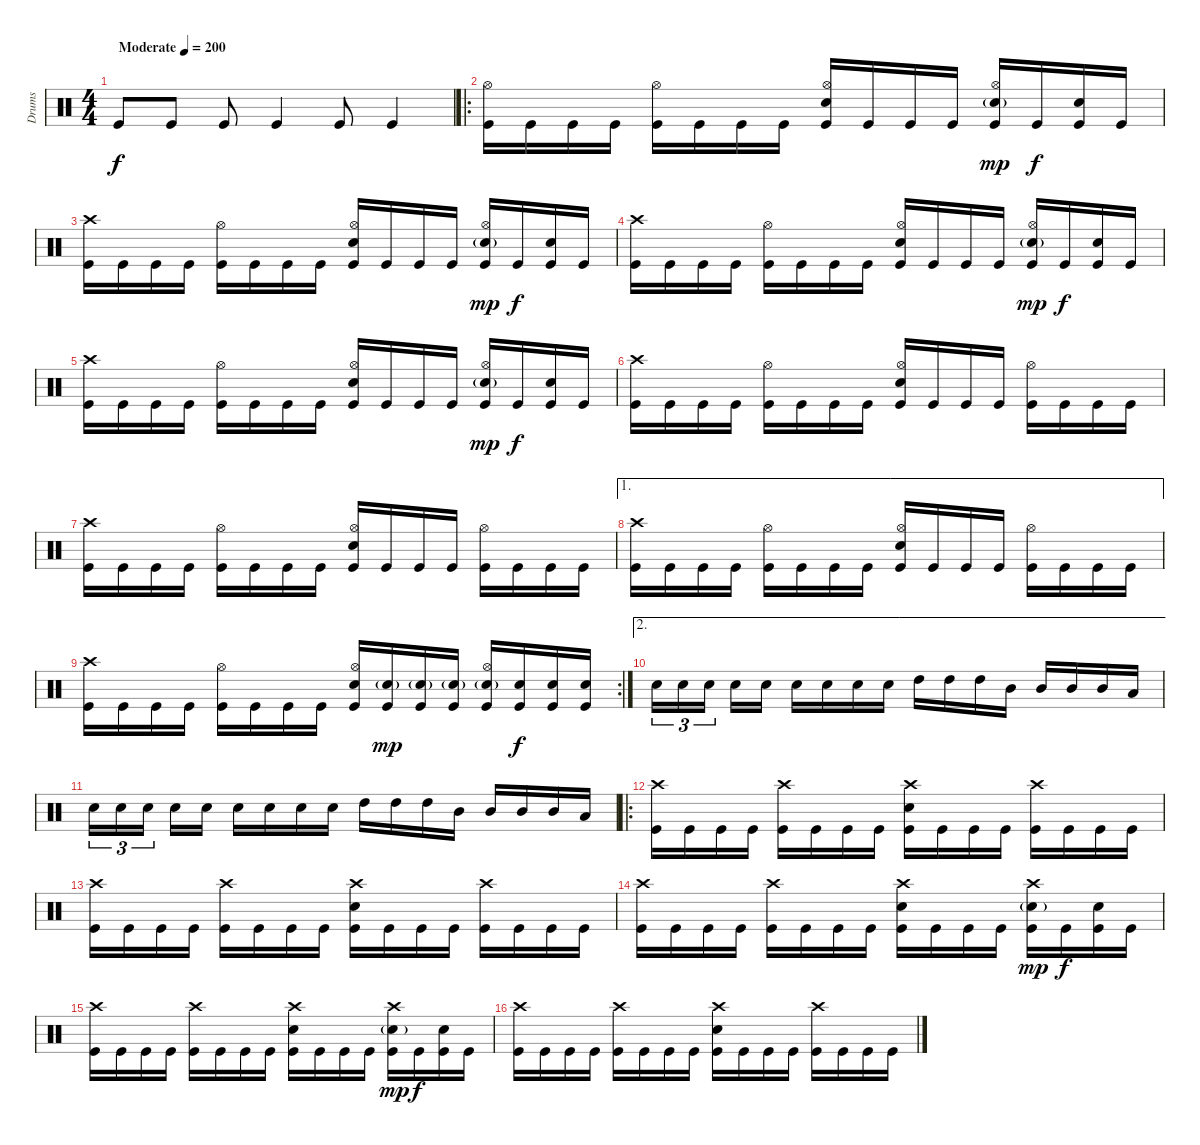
\track ("Drums" "Drums") {instrument percussion}
\staff {score}
\articulation defaults
\ts (4 4)
\tempo (200 "Moderate")
\clef neutral
\ks c "Kick (hit)".8{dy f} "Kick (hit)".8 "Kick (hit)".8 "Kick (hit)".4 "Kick (hit)".8 "Kick (hit)".4
|
\ro
("Hi-Hat (open)" "Kick (hit)").16 "Kick (hit)".16 "Kick (hit)".16 "Kick (hit)".16 ("Hi-Hat (open)" "Kick (hit)").16 "Kick (hit)".16 "Kick (hit)".16 "Kick (hit)".16 ("Hi-Hat (open)" "Snare (hit) 2" "Kick (hit)").16 "Kick (hit)".16 "Kick (hit)".16 "Kick (hit)".16 ("Hi-Hat (open)" "Snare (hit) 2"{g} "Kick (hit)").16{dy mp} "Kick (hit)".16{dy f} ("Snare (hit) 2" "Kick (hit)").16 "Kick (hit)".16 |
("Crash high (hit)" "Kick (hit)").16 "Kick (hit)".16 "Kick (hit)".16 "Kick (hit)".16 ("Hi-Hat (open)" "Kick (hit)").16 "Kick (hit)".16 "Kick (hit)".16 "Kick (hit)".16 ("Hi-Hat (open)" "Snare (hit) 2" "Kick (hit)").16 "Kick (hit)".16 "Kick (hit)".16 "Kick (hit)".16 ("Hi-Hat (open)" "Snare (hit) 2"{g} "Kick (hit)").16{dy mp} "Kick (hit)".16{dy f} ("Snare (hit) 2" "Kick (hit)").16 "Kick (hit)".16 |
("Crash high (hit)" "Kick (hit)").16 "Kick (hit)".16 "Kick (hit)".16 "Kick (hit)".16 ("Hi-Hat (open)" "Kick (hit)").16 "Kick (hit)".16 "Kick (hit)".16 "Kick (hit)".16 ("Hi-Hat (open)" "Snare (hit) 2" "Kick (hit)").16 "Kick (hit)".16 "Kick (hit)".16 "Kick (hit)".16 ("Hi-Hat (open)" "Snare (hit) 2"{g} "Kick (hit)").16{dy mp} "Kick (hit)".16{dy f} ("Snare (hit) 2" "Kick (hit)").16 "Kick (hit)".16 |
("Crash high (hit)" "Kick (hit)").16 "Kick (hit)".16 "Kick (hit)".16 "Kick (hit)".16 ("Hi-Hat (open)" "Kick (hit)").16 "Kick (hit)".16 "Kick (hit)".16 "Kick (hit)".16 ("Hi-Hat (open)" "Snare (hit) 2" "Kick (hit)").16 "Kick (hit)".16 "Kick (hit)".16 "Kick (hit)".16 ("Hi-Hat (open)" "Snare (hit) 2"{g} "Kick (hit)").16{dy mp} "Kick (hit)".16{dy f} ("Snare (hit) 2" "Kick (hit)").16 "Kick (hit)".16 |
("Crash high (hit)" "Kick (hit)").16 "Kick (hit)".16 "Kick (hit)".16 "Kick (hit)".16 ("Hi-Hat (open)" "Kick (hit)").16 "Kick (hit)".16 "Kick (hit)".16 "Kick (hit)".16 ("Hi-Hat (open)" "Snare (hit) 2" "Kick (hit)").16 "Kick (hit)".16 "Kick (hit)".16 "Kick (hit)".16 ("Hi-Hat (open)" "Kick (hit)").16 "Kick (hit)".16 "Kick (hit)".16 "Kick (hit)".16 |
("Crash high (hit)" "Kick (hit)").16 "Kick (hit)".16 "Kick (hit)".16 "Kick (hit)".16 ("Hi-Hat (open)" "Kick (hit)").16 "Kick (hit)".16 "Kick (hit)".16 "Kick (hit)".16 ("Hi-Hat (open)" "Snare (hit) 2" "Kick (hit)").16 "Kick (hit)".16 "Kick (hit)".16 "Kick (hit)".16 ("Hi-Hat (open)" "Kick (hit)").16 "Kick (hit)".16 "Kick (hit)".16 "Kick (hit)".16 |
\ae 1
("Crash high (hit)" "Kick (hit)").16 "Kick (hit)".16 "Kick (hit)".16 "Kick (hit)".16 ("Hi-Hat (open)" "Kick (hit)").16 "Kick (hit)".16 "Kick (hit)".16 "Kick (hit)".16 ("Hi-Hat (open)" "Snare (hit) 2" "Kick (hit)").16 "Kick (hit)".16 "Kick (hit)".16 "Kick (hit)".16 ("Hi-Hat (open)" "Kick (hit)").16 "Kick (hit)".16 "Kick (hit)".16 "Kick (hit)".16 |
\rc 2
("Crash high (hit)" "Kick (hit)").16 "Kick (hit)".16 "Kick (hit)".16 "Kick (hit)".16 ("Hi-Hat (open)" "Kick (hit)").16 "Kick (hit)".16 "Kick (hit)".16 "Kick (hit)".16 ("Hi-Hat (open)" "Snare (hit) 2" "Kick (hit)").16 ("Snare (hit) 2"{g} "Kick (hit)").16{dy mp} ("Snare (hit) 2"{g} "Kick (hit)").16 ("Snare (hit) 2"{g} "Kick (hit)").16 ("Hi-Hat (open)" "Snare (hit) 2"{g} "Kick (hit)").16 ("Snare (hit) 2" "Kick (hit)").16{dy f} ("Snare (hit) 2" "Kick (hit)").16 ("Snare (hit) 2" "Kick (hit)").16 |
\ae 2 "Snare (hit) 2".16{tu (3 2)} "Snare (hit) 2".16{tu (3 2)} "Snare (hit) 2".16{tu (3 2) beam splitsecondary} "Snare (hit) 2".16 "Snare (hit) 2".16 "Snare (hit) 2".16 "Snare (hit) 2".16 "Snare (hit) 2".16 "Snare (hit) 2".16 "High Tom (hit)".16 "High Tom (hit)".16 "High Tom (hit)".16 "Mid Tom (hit)".16 "Mid Tom (hit)".16 "Mid Tom (hit)".16 "Mid Tom (hit)".16 "Low Tom (hit)".16
|
"Snare (hit) 2".16{tu (3 2)} "Snare (hit) 2".16{tu (3 2)} "Snare (hit) 2".16{tu (3 2) beam splitsecondary} "Snare (hit) 2".16 "Snare (hit) 2".16 "Snare (hit) 2".16 "Snare (hit) 2".16 "Snare (hit) 2".16 "Snare (hit) 2".16 "High Tom (hit)".16 "High Tom (hit)".16 "High Tom (hit)".16 "Mid Tom (hit)".16 "Mid Tom (hit)".16 "Mid Tom (hit)".16 "Mid Tom (hit)".16 "Low Tom (hit)".16 |
\ro
("Crash high (hit)" "Kick (hit)").16 "Kick (hit)".16 "Kick (hit)".16 "Kick (hit)".16 ("Crash high (hit)" "Kick (hit)").16 "Kick (hit)".16 "Kick (hit)".16 "Kick (hit)".16 ("Crash high (hit)" "Snare (hit) 2" "Kick (hit)").16 "Kick (hit)".16 "Kick (hit)".16 "Kick (hit)".16 ("Crash high (hit)" "Kick (hit)").16 "Kick (hit)".16 "Kick (hit)".16 "Kick (hit)".16 |
("Crash high (hit)" "Kick (hit)").16 "Kick (hit)".16 "Kick (hit)".16 "Kick (hit)".16 ("Crash high (hit)" "Kick (hit)").16 "Kick (hit)".16 "Kick (hit)".16 "Kick (hit)".16 ("Crash high (hit)" "Snare (hit) 2" "Kick (hit)").16 "Kick (hit)".16 "Kick (hit)".16 "Kick (hit)".16 ("Crash high (hit)" "Kick (hit)").16 "Kick (hit)".16 "Kick (hit)".16 "Kick (hit)".16 |
("Crash high (hit)" "Kick (hit)").16 "Kick (hit)".16 "Kick (hit)".16 "Kick (hit)".16 ("Crash high (hit)" "Kick (hit)").16 "Kick (hit)".16 "Kick (hit)".16 "Kick (hit)".16 ("Crash high (hit)" "Snare (hit) 2" "Kick (hit)").16 "Kick (hit)".16 "Kick (hit)".16 "Kick (hit)".16 ("Crash high (hit)" "Snare (hit) 2"{g} "Kick (hit)").16{dy mp} "Kick (hit)".16{dy f} ("Snare (hit) 2" "Kick (hit)").16 "Kick (hit)".16 |
("Crash high (hit)" "Kick (hit)").16 "Kick (hit)".16 "Kick (hit)".16 "Kick (hit)".16 ("Crash high (hit)" "Kick (hit)").16 "Kick (hit)".16 "Kick (hit)".16 "Kick (hit)".16 ("Crash high (hit)" "Snare (hit) 2" "Kick (hit)").16 "Kick (hit)".16 "Kick (hit)".16 "Kick (hit)".16 ("Crash high (hit)" "Snare (hit) 2"{g} "Kick (hit)").16{dy mp} "Kick (hit)".16{dy f} ("Snare (hit) 2" "Kick (hit)").16 "Kick (hit)".16 |
("Crash high (hit)" "Kick (hit)").16 "Kick (hit)".16 "Kick (hit)".16 "Kick (hit)".16 ("Crash high (hit)" "Kick (hit)").16 "Kick (hit)".16 "Kick (hit)".16 "Kick (hit)".16 ("Crash high (hit)" "Snare (hit) 2" "Kick (hit)").16 "Kick (hit)".16 "Kick (hit)".16 "Kick (hit)".16 ("Crash high (hit)" "Kick (hit)").16 "Kick (hit)".16 "Kick (hit)".16 "Kick (hit)".16
